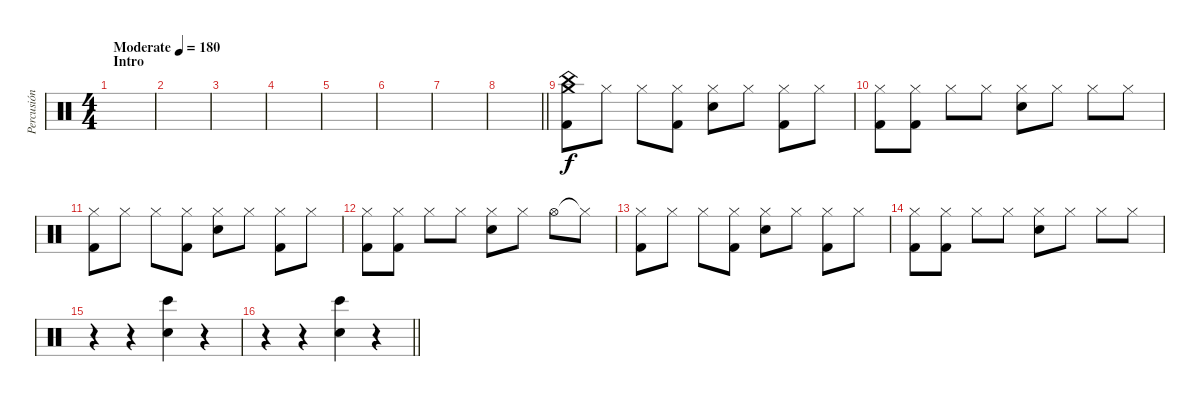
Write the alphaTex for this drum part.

\track ("Percusión" "Percusión") {instrument percussion}
\staff {score}
\articulation defaults
\ts (4 4)
\section ("" "Intro")
\tempo (180 "Moderate")
\clef neutral
\ks c
|
|
|
|
|
|
|
\barLineRight lightlight
|
("Crash medium (hit)" "China (hit)" "Kick (hit) 2").8{volume 16} "Hi-Hat (closed)".8 "Hi-Hat (closed)".8 ("Hi-Hat (closed)" "Kick (hit) 2").8 ("Hi-Hat (closed)" "Snare (hit) 2").8 "Hi-Hat (closed)".8 ("Hi-Hat (closed)" "Kick (hit) 2").8 "Hi-Hat (closed)".8 |
("Hi-Hat (closed)" "Kick (hit) 2").8 ("Hi-Hat (closed)" "Kick (hit) 2").8 "Hi-Hat (closed)".8 "Hi-Hat (closed)".8 ("Hi-Hat (closed)" "Snare (hit) 2").8 "Hi-Hat (closed)".8 "Hi-Hat (closed)".8 "Hi-Hat (closed)".8 |
("Hi-Hat (closed)" "Kick (hit) 2").8 "Hi-Hat (closed)".8 "Hi-Hat (closed)".8 ("Hi-Hat (closed)" "Kick (hit) 2").8 ("Hi-Hat (closed)" "Snare (hit) 2").8 "Hi-Hat (closed)".8 ("Hi-Hat (closed)" "Kick (hit) 2").8 "Hi-Hat (closed)".8 |
("Hi-Hat (closed)" "Kick (hit) 2").8 ("Hi-Hat (closed)" "Kick (hit) 2").8 "Hi-Hat (closed)".8 "Hi-Hat (closed)".8 ("Hi-Hat (closed)" "Snare (hit) 2").8 "Hi-Hat (closed)".8 "Hi-Hat (open)".8 "Hi-Hat (closed)"{t}.8 |
("Hi-Hat (closed)" "Kick (hit) 2").8 "Hi-Hat (closed)".8 "Hi-Hat (closed)".8 ("Hi-Hat (closed)" "Kick (hit) 2").8 ("Hi-Hat (closed)" "Snare (hit) 2").8 "Hi-Hat (closed)".8 ("Hi-Hat (closed)" "Kick (hit) 2").8 "Hi-Hat (closed)".8 |
("Hi-Hat (closed)" "Kick (hit) 2").8 ("Hi-Hat (closed)" "Kick (hit) 2").8 "Hi-Hat (closed)".8 "Hi-Hat (closed)".8 ("Hi-Hat (closed)" "Snare (hit) 2").8 "Hi-Hat (closed)".8 "Hi-Hat (closed)".8 "Hi-Hat (closed)".8 |
r.4 r.4 ("Bongo High (hit)" "Snare (hit) 2").4 r.4 |
\barLineRight lightlight
r.4 r.4 ("Bongo High (hit)" "Snare (hit) 2").4 r.4
